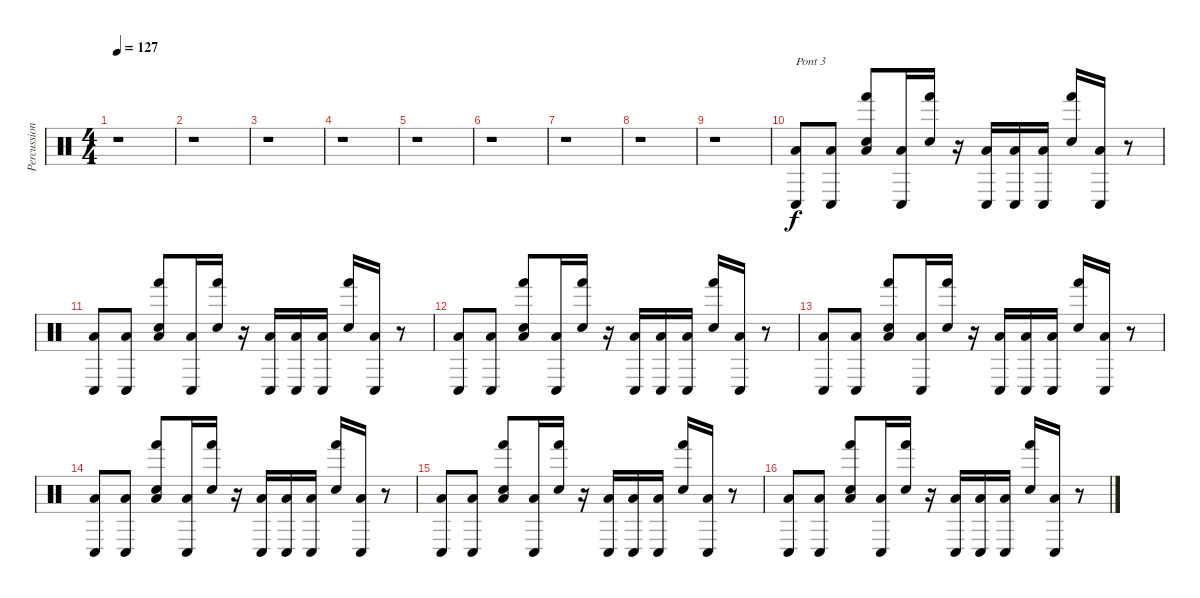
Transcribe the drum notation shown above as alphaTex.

\track ("Percussions" "Percussion") {instrument percussion}
\staff {score}
\articulation defaults
\ts (4 4)
\tempo 127
\clef neutral
\ks c
r.1{dy f} |
r.1 |
r.1 |
r.1 |
r.1 |
r.1 |
r.1 |
r.1 |
r.1 |
("Conga low (hit)" "Low Floor Tom (hit)").8{txt "Pont 3"} ("Conga low (hit)" "Low Floor Tom (hit)").8 ("Electric Snare (hit)" "Hand (hit)" "Low Floor Tom (hit)").8 ("Conga low (hit)" "Low Floor Tom (hit)").16 ("Electric Snare (hit)" "Hand (hit)").16 r.16 ("Conga low (hit)" "Low Floor Tom (hit)").16 ("Conga low (hit)" "Low Floor Tom (hit)").16 ("Conga low (hit)" "Low Floor Tom (hit)").16 ("Electric Snare (hit)" "Hand (hit)").16 ("Conga low (hit)" "Low Floor Tom (hit)").16 r.8 |
("Conga low (hit)" "Low Floor Tom (hit)").8 ("Conga low (hit)" "Low Floor Tom (hit)").8 ("Electric Snare (hit)" "Hand (hit)" "Low Floor Tom (hit)").8 ("Conga low (hit)" "Low Floor Tom (hit)").16 ("Electric Snare (hit)" "Hand (hit)").16 r.16 ("Conga low (hit)" "Low Floor Tom (hit)").16 ("Conga low (hit)" "Low Floor Tom (hit)").16 ("Conga low (hit)" "Low Floor Tom (hit)").16 ("Electric Snare (hit)" "Hand (hit)").16 ("Conga low (hit)" "Low Floor Tom (hit)").16 r.8 |
("Conga low (hit)" "Low Floor Tom (hit)").8 ("Conga low (hit)" "Low Floor Tom (hit)").8 ("Electric Snare (hit)" "Hand (hit)" "Low Floor Tom (hit)").8 ("Conga low (hit)" "Low Floor Tom (hit)").16 ("Electric Snare (hit)" "Hand (hit)").16 r.16 ("Conga low (hit)" "Low Floor Tom (hit)").16 ("Conga low (hit)" "Low Floor Tom (hit)").16 ("Conga low (hit)" "Low Floor Tom (hit)").16 ("Electric Snare (hit)" "Hand (hit)").16 ("Conga low (hit)" "Low Floor Tom (hit)").16 r.8 |
("Conga low (hit)" "Low Floor Tom (hit)").8 ("Conga low (hit)" "Low Floor Tom (hit)").8 ("Electric Snare (hit)" "Hand (hit)" "Low Floor Tom (hit)").8 ("Conga low (hit)" "Low Floor Tom (hit)").16 ("Electric Snare (hit)" "Hand (hit)").16 r.16 ("Conga low (hit)" "Low Floor Tom (hit)").16 ("Conga low (hit)" "Low Floor Tom (hit)").16 ("Conga low (hit)" "Low Floor Tom (hit)").16 ("Electric Snare (hit)" "Hand (hit)").16 ("Conga low (hit)" "Low Floor Tom (hit)").16 r.8 |
("Conga low (hit)" "Low Floor Tom (hit)").8 ("Conga low (hit)" "Low Floor Tom (hit)").8 ("Electric Snare (hit)" "Hand (hit)" "Low Floor Tom (hit)").8 ("Conga low (hit)" "Low Floor Tom (hit)").16 ("Electric Snare (hit)" "Hand (hit)").16 r.16 ("Conga low (hit)" "Low Floor Tom (hit)").16 ("Conga low (hit)" "Low Floor Tom (hit)").16 ("Conga low (hit)" "Low Floor Tom (hit)").16 ("Electric Snare (hit)" "Hand (hit)").16 ("Conga low (hit)" "Low Floor Tom (hit)").16 r.8 |
("Conga low (hit)" "Low Floor Tom (hit)").8 ("Conga low (hit)" "Low Floor Tom (hit)").8 ("Electric Snare (hit)" "Hand (hit)" "Low Floor Tom (hit)").8 ("Conga low (hit)" "Low Floor Tom (hit)").16 ("Electric Snare (hit)" "Hand (hit)").16 r.16 ("Conga low (hit)" "Low Floor Tom (hit)").16 ("Conga low (hit)" "Low Floor Tom (hit)").16 ("Conga low (hit)" "Low Floor Tom (hit)").16 ("Electric Snare (hit)" "Hand (hit)").16 ("Conga low (hit)" "Low Floor Tom (hit)").16 r.8 |
("Conga low (hit)" "Low Floor Tom (hit)").8 ("Conga low (hit)" "Low Floor Tom (hit)").8 ("Electric Snare (hit)" "Hand (hit)" "Low Floor Tom (hit)").8 ("Conga low (hit)" "Low Floor Tom (hit)").16 ("Electric Snare (hit)" "Hand (hit)").16 r.16 ("Conga low (hit)" "Low Floor Tom (hit)").16 ("Conga low (hit)" "Low Floor Tom (hit)").16 ("Conga low (hit)" "Low Floor Tom (hit)").16 ("Electric Snare (hit)" "Hand (hit)").16 ("Conga low (hit)" "Low Floor Tom (hit)").16 r.8
